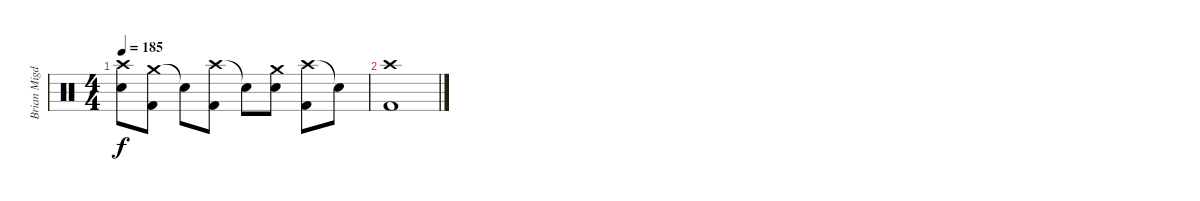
\track ("Brian Migdol- Drums" "Brian Migd") {instrument percussion}
\staff {score}
\articulation defaults
\ts (4 4)
\tempo 185
\clef neutral
\ks c
("Crash high (hit)" "Snare (hit) 2").8{dy f} ("Crash medium (hit)" "Kick (hit) 2").8 "Snare (hit)"{t}.8 ("Crash high (hit)" "Kick (hit) 2").8 "Snare (hit)"{t}.8 ("Crash medium (hit)" "Snare (hit) 2").8 ("Crash high (hit)" "Kick (hit) 2").8 "Snare (hit)"{t}.8 |
("Kick (hit) 2" "Crash high (hit)").1
